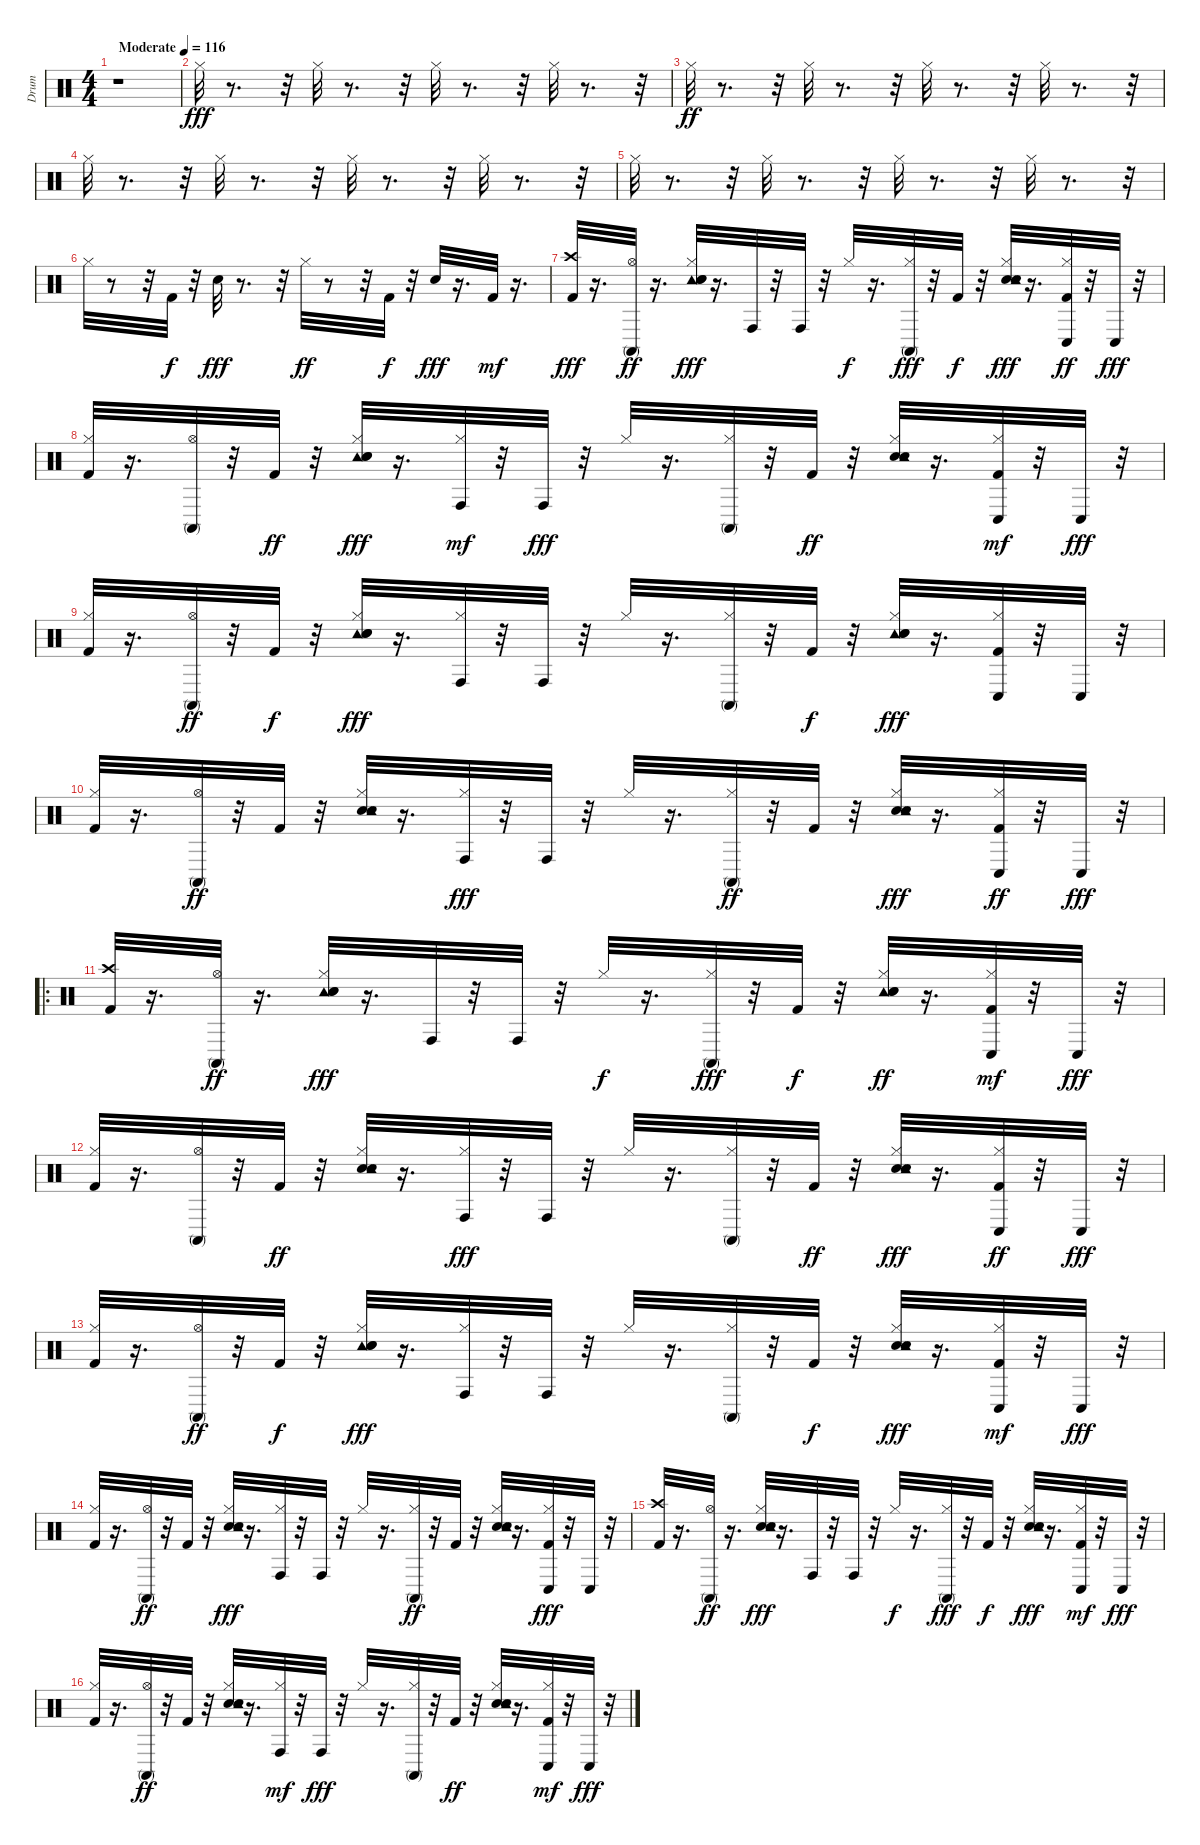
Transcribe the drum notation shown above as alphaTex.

\track ("Drum" "Drum") {instrument percussion}
\staff {score}
\articulation defaults
\ts (4 4)
\tempo (116 "Moderate")
\clef neutral
\ks c
r.1{dy fff} |
"Hi-Hat (closed)".32 r.8{d} r.32 "Hi-Hat (closed)".32 r.8{d} r.32 "Hi-Hat (closed)".32 r.8{d} r.32 "Hi-Hat (closed)".32 r.8{d} r.32 |
"Hi-Hat (closed)".32{dy ff} r.8{d} r.32 "Hi-Hat (closed)".32 r.8{d} r.32 "Hi-Hat (closed)".32 r.8{d} r.32 "Hi-Hat (closed)".32 r.8{d} r.32 |
"Hi-Hat (closed)".32 r.8{d} r.32 "Hi-Hat (closed)".32 r.8{d} r.32 "Hi-Hat (closed)".32 r.8{d} r.32 "Hi-Hat (closed)".32 r.8{d} r.32 |
"Hi-Hat (closed)".32 r.8{d} r.32 "Hi-Hat (closed)".32 r.8{d} r.32 "Hi-Hat (closed)".32 r.8{d} r.32 "Hi-Hat (closed)".32 r.8{d} r.32 |
"Hi-Hat (closed)".32 r.8 r.32 "Kick (hit) 2".32{dy f} r.32 "Electric Snare (hit)".32{dy fff} r.8{d} r.32 "Hi-Hat (closed)".32{dy ff} r.8 r.32 "Kick (hit) 2".32{dy f} r.32 "Electric Snare (hit)".32{dy fff} r.16{d} "Kick (hit) 2".32{dy mf} r.16{d} |
("Kick (hit) 2" "Crash high (hit)").32{dy fff} r.16{d} ("Conga high (mute)" "Hi-Hat (open)").32{dy ff} r.16{d} ("Tambourine (hit)" "Hi-Hat (closed)" "Hand Clap (hit)" "Electric Snare (hit)").32{dy fff} r.16{d} "Conga high (hit)".32 r.32 "Conga high (hit)".32 r.32 "Hi-Hat (closed)".32{dy f} r.16{d} ("Hi-Hat (closed)" "Conga high (mute)").32{dy fff} r.32 "Kick (hit) 2".32{dy f} r.32 ("Electric Snare (hit)" "Tambourine (hit)" "Hi-Hat (closed)" "Hand Clap (hit)").32{dy fff} r.16{d} ("Hi-Hat (closed)" "Conga low (hit)" "Kick (hit) 2").32{dy ff} r.32 "Conga low (hit)".32{dy fff} r.32 |
("Hi-Hat (closed)" "Kick (hit) 2").32 r.16{d} ("Hi-Hat (open)" "Conga high (mute)").32 r.32 "Kick (hit) 2".32{dy ff} r.32 ("Tambourine (hit)" "Hi-Hat (closed)" "Hand Clap (hit)" "Electric Snare (hit)").32{dy fff} r.16{d} ("Conga high (hit)" "Hi-Hat (closed)").32{dy mf} r.32 "Conga high (hit)".32{dy fff} r.32 "Hi-Hat (closed)".32 r.16{d} ("Conga high (mute)" "Hi-Hat (closed)").32 r.32 "Kick (hit) 2".32{dy ff} r.32 ("Hand Clap (hit)" "Electric Snare (hit)" "Hi-Hat (closed)" "Tambourine (hit)").32 r.16{d} ("Conga low (hit)" "Kick (hit) 2" "Hi-Hat (closed)").32{dy mf} r.32 "Conga low (hit)".32{dy fff} r.32 |
("Hi-Hat (closed)" "Kick (hit) 2").32 r.16{d} ("Conga high (mute)" "Hi-Hat (open)").32{dy ff} r.32 "Kick (hit) 2".32{dy f} r.32 ("Hi-Hat (closed)" "Tambourine (hit)" "Electric Snare (hit)" "Hand Clap (hit)").32{dy fff} r.16{d} ("Hi-Hat (closed)" "Conga high (hit)").32 r.32 "Conga high (hit)".32 r.32 "Hi-Hat (closed)".32 r.16{d} ("Hi-Hat (closed)" "Conga high (mute)").32 r.32 "Kick (hit) 2".32{dy f} r.32 ("Hi-Hat (closed)" "Tambourine (hit)" "Hand Clap (hit)" "Electric Snare (hit)").32{dy fff} r.16{d} ("Hi-Hat (closed)" "Conga low (hit)" "Kick (hit) 2").32 r.32 "Conga low (hit)".32 r.32 |
("Kick (hit) 2" "Hi-Hat (closed)").32 r.16{d} ("Conga high (mute)" "Hi-Hat (open)").32{dy ff} r.32 "Kick (hit) 2".32 r.32 ("Hi-Hat (closed)" "Electric Snare (hit)" "Hand Clap (hit)" "Tambourine (hit)").32 r.16{d} ("Conga high (hit)" "Hi-Hat (closed)").32{dy fff} r.32 "Conga high (hit)".32 r.32 "Hi-Hat (closed)".32 r.16{d} ("Conga high (mute)" "Hi-Hat (closed)").32{dy ff} r.32 "Kick (hit) 2".32 r.32 ("Electric Snare (hit)" "Hi-Hat (closed)" "Hand Clap (hit)" "Tambourine (hit)").32{dy fff} r.16{d} ("Conga low (hit)" "Hi-Hat (closed)" "Kick (hit) 2").32{dy ff} r.32 "Conga low (hit)".32{dy fff} r.32 |
\ro
("Kick (hit) 2" "Crash high (hit)").32 r.16{d} ("Conga high (mute)" "Hi-Hat (open)").32{dy ff} r.16{d} ("Tambourine (hit)" "Electric Snare (hit)" "Hand Clap (hit)" "Hi-Hat (closed)").32{dy fff} r.16{d} "Conga high (hit)".32 r.32 "Conga high (hit)".32 r.32 "Hi-Hat (closed)".32{dy f} r.16{d} ("Hi-Hat (closed)" "Conga high (mute)").32{dy fff} r.32 "Kick (hit) 2".32{dy f} r.32 ("Tambourine (hit)" "Hand Clap (hit)" "Electric Snare (hit)" "Hi-Hat (closed)").32{dy ff} r.16{d} ("Kick (hit) 2" "Conga low (hit)" "Hi-Hat (closed)").32{dy mf} r.32 "Conga low (hit)".32{dy fff} r.32 |
("Hi-Hat (closed)" "Kick (hit) 2").32 r.16{d} ("Hi-Hat (open)" "Conga high (mute)").32 r.32 "Kick (hit) 2".32{dy ff} r.32 ("Electric Snare (hit)" "Hand Clap (hit)" "Hi-Hat (closed)" "Tambourine (hit)").32 r.16{d} ("Hi-Hat (closed)" "Conga high (hit)").32{dy fff} r.32 "Conga high (hit)".32 r.32 "Hi-Hat (closed)".32 r.16{d} ("Conga high (mute)" "Hi-Hat (closed)").32 r.32 "Kick (hit) 2".32{dy ff} r.32 ("Electric Snare (hit)" "Hand Clap (hit)" "Tambourine (hit)" "Hi-Hat (closed)").32{dy fff} r.16{d} ("Hi-Hat (closed)" "Conga low (hit)" "Kick (hit) 2").32{dy ff} r.32 "Conga low (hit)".32{dy fff} r.32 |
("Kick (hit) 2" "Hi-Hat (closed)").32 r.16{d} ("Conga high (mute)" "Hi-Hat (open)").32{dy ff} r.32 "Kick (hit) 2".32{dy f} r.32 ("Tambourine (hit)" "Hi-Hat (closed)" "Hand Clap (hit)" "Electric Snare (hit)").32{dy fff} r.16{d} ("Hi-Hat (closed)" "Conga high (hit)").32 r.32 "Conga high (hit)".32 r.32 "Hi-Hat (closed)".32 r.16{d} ("Conga high (mute)" "Hi-Hat (closed)").32 r.32 "Kick (hit) 2".32{dy f} r.32 ("Electric Snare (hit)" "Hi-Hat (closed)" "Tambourine (hit)" "Hand Clap (hit)").32{dy fff} r.16{d} ("Kick (hit) 2" "Conga low (hit)" "Hi-Hat (closed)").32{dy mf} r.32 "Conga low (hit)".32{dy fff} r.32 |
("Kick (hit) 2" "Hi-Hat (closed)").32 r.16{d} ("Conga high (mute)" "Hi-Hat (open)").32{dy ff} r.32 "Kick (hit) 2".32 r.32 ("Hand Clap (hit)" "Electric Snare (hit)" "Tambourine (hit)" "Hi-Hat (closed)").32{dy fff} r.16{d} ("Hi-Hat (closed)" "Conga high (hit)").32 r.32 "Conga high (hit)".32 r.32 "Hi-Hat (closed)".32 r.16{d} ("Conga high (mute)" "Hi-Hat (closed)").32{dy ff} r.32 "Kick (hit) 2".32 r.32 ("Electric Snare (hit)" "Hand Clap (hit)" "Hi-Hat (closed)" "Tambourine (hit)").32 r.16{d} ("Kick (hit) 2" "Conga low (hit)" "Hi-Hat (closed)").32{dy fff} r.32 "Conga low (hit)".32 r.32 |
("Kick (hit) 2" "Crash high (hit)").32 r.16{d} ("Conga high (mute)" "Hi-Hat (open)").32{dy ff} r.16{d} ("Hand Clap (hit)" "Tambourine (hit)" "Electric Snare (hit)" "Hi-Hat (closed)").32{dy fff} r.16{d} "Conga high (hit)".32 r.32 "Conga high (hit)".32 r.32 "Hi-Hat (closed)".32{dy f} r.16{d} ("Hi-Hat (closed)" "Conga high (mute)").32{dy fff} r.32 "Kick (hit) 2".32{dy f} r.32 ("Hand Clap (hit)" "Tambourine (hit)" "Hi-Hat (closed)" "Electric Snare (hit)").32{dy fff} r.16{d} ("Conga low (hit)" "Kick (hit) 2" "Hi-Hat (closed)").32{dy mf} r.32 "Conga low (hit)".32{dy fff} r.32 |
("Hi-Hat (closed)" "Kick (hit) 2").32 r.16{d} ("Conga high (mute)" "Hi-Hat (open)").32{dy ff} r.32 "Kick (hit) 2".32 r.32 ("Electric Snare (hit)" "Hand Clap (hit)" "Tambourine (hit)" "Hi-Hat (closed)").32 r.16{d} ("Conga high (hit)" "Hi-Hat (closed)").32{dy mf} r.32 "Conga high (hit)".32{dy fff} r.32 "Hi-Hat (closed)".32 r.16{d} ("Conga high (mute)" "Hi-Hat (closed)").32 r.32 "Kick (hit) 2".32{dy ff} r.32 ("Hi-Hat (closed)" "Electric Snare (hit)" "Hand Clap (hit)" "Tambourine (hit)").32 r.16{d} ("Conga low (hit)" "Kick (hit) 2" "Hi-Hat (closed)").32{dy mf} r.32 "Conga low (hit)".32{dy fff} r.32
